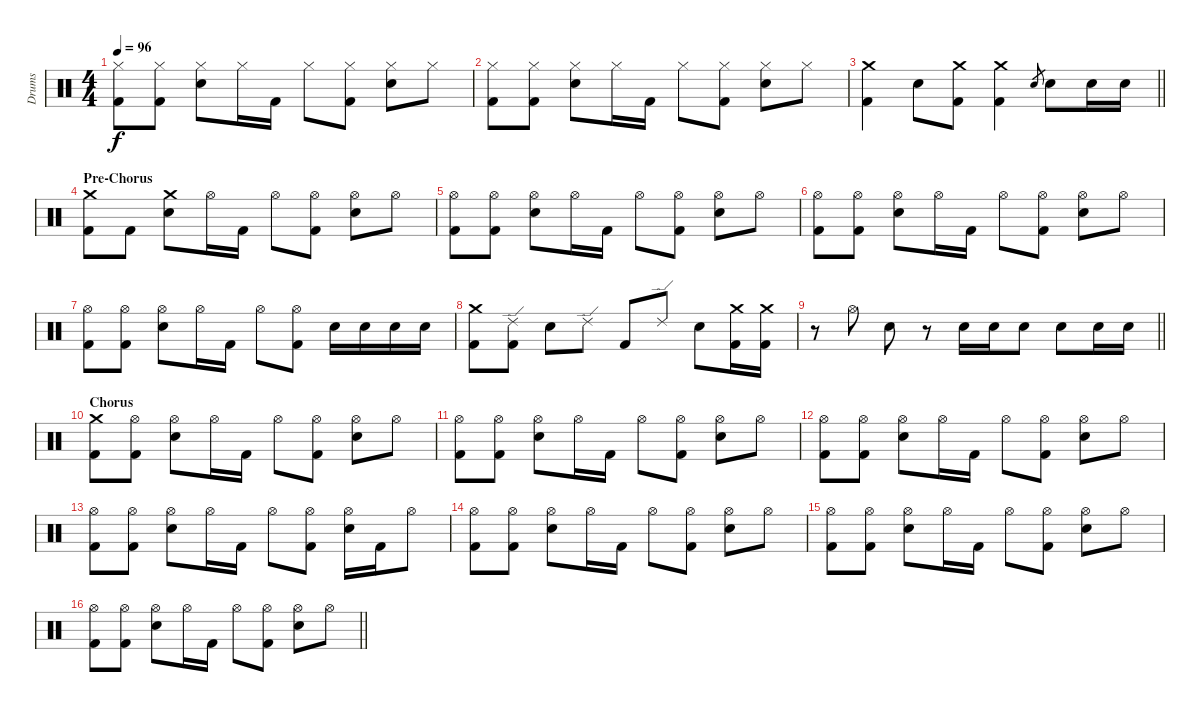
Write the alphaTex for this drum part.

\track ("Drums" "Drums") {instrument percussion}
\staff {score}
\articulation defaults
\ts (4 4)
\tempo 96
\clef neutral
\ks c
("Hi-Hat (closed)" "Kick (hit) 2").8{dy f} ("Hi-Hat (closed)" "Kick (hit) 2").8 ("Hi-Hat (closed)" "Snare (hit) 2").8 "Hi-Hat (closed)".16 "Kick (hit) 2".16 "Hi-Hat (closed)".8 ("Hi-Hat (closed)" "Kick (hit) 2").8 ("Hi-Hat (closed)" "Snare (hit) 2").8 "Hi-Hat (closed)".8 |
("Hi-Hat (closed)" "Kick (hit) 2").8 ("Hi-Hat (closed)" "Kick (hit) 2").8 ("Hi-Hat (closed)" "Snare (hit) 2").8 "Hi-Hat (closed)".16 "Kick (hit) 2".16 "Hi-Hat (closed)".8 ("Hi-Hat (closed)" "Kick (hit) 2").8 ("Hi-Hat (closed)" "Snare (hit) 2").8 "Hi-Hat (closed)".8 |
\barLineRight lightlight
("Crash medium (hit)" "Kick (hit) 2").4 "Snare (hit) 2".8 ("Crash medium (hit)" "Kick (hit) 2").8 ("Crash medium (hit)" "Kick (hit) 2").4 "Snare (hit) 2".8{gr} "Snare (hit) 2".8 "Snare (hit) 2".16 "Snare (hit) 2".16 |
\section ("" "Pre-Chorus")
("Crash medium (hit)" "Kick (hit) 2").8 "Kick (hit) 2".8 ("Crash medium (hit)" "Snare (hit) 2").8 "Hi-Hat (open)".16 "Kick (hit) 2".16 "Hi-Hat (open)".8 ("Hi-Hat (open)" "Kick (hit) 2").8 ("Hi-Hat (open)" "Snare (hit) 2").8 "Hi-Hat (open)".8 |
("Hi-Hat (open)" "Kick (hit) 2").8 ("Hi-Hat (open)" "Kick (hit) 2").8 ("Hi-Hat (open)" "Snare (hit) 2").8 "Hi-Hat (open)".16 "Kick (hit) 2".16 "Hi-Hat (open)".8 ("Hi-Hat (open)" "Kick (hit) 2").8 ("Hi-Hat (open)" "Snare (hit) 2").8 "Hi-Hat (open)".8 |
("Hi-Hat (open)" "Kick (hit) 2").8 ("Hi-Hat (open)" "Kick (hit) 2").8 ("Hi-Hat (open)" "Snare (hit) 2").8 "Hi-Hat (open)".16 "Kick (hit) 2".16 "Hi-Hat (open)".8 ("Hi-Hat (open)" "Kick (hit) 2").8 ("Hi-Hat (open)" "Snare (hit) 2").8 "Hi-Hat (open)".8 |
("Hi-Hat (open)" "Kick (hit) 2").8 ("Hi-Hat (open)" "Kick (hit) 2").8 ("Hi-Hat (open)" "Snare (hit) 2").8 "Hi-Hat (open)".16 "Kick (hit) 2".16 "Hi-Hat (open)".8 ("Hi-Hat (open)" "Kick (hit) 2").8 "Snare (hit) 2".16 "Snare (hit) 2".16 "Snare (hit) 2".16 "Snare (hit) 2".16 |
("Crash medium (hit)" "Kick (hit) 2").8 ("Ride (edge) 2" "Kick (hit) 2").8 "Snare (hit) 2".8 "Ride (edge) 2".8 "Kick (hit) 2".8 "Ride (edge) 2".8 "Snare (hit) 2".8 ("Crash medium (hit)" "Kick (hit) 2").16 ("Crash medium (hit)" "Kick (hit) 2").16 |
\barLineRight lightlight
r.8 "Hi-Hat (open)".8 "Snare (hit) 2".8 r.8 "Snare (hit) 2".16 "Snare (hit) 2".16 "Snare (hit) 2".8 "Snare (hit) 2".8 "Snare (hit) 2".16 "Snare (hit) 2".16 |
\section ("" "Chorus")
("Crash medium (hit)" "Kick (hit) 2").8 ("Hi-Hat (open)" "Kick (hit) 2").8 ("Hi-Hat (open)" "Snare (hit) 2").8 "Hi-Hat (open)".16 "Kick (hit) 2".16 "Hi-Hat (open)".8 ("Hi-Hat (open)" "Kick (hit) 2").8 ("Hi-Hat (open)" "Snare (hit) 2").8 "Hi-Hat (open)".8 |
("Hi-Hat (open)" "Kick (hit) 2").8 ("Hi-Hat (open)" "Kick (hit) 2").8 ("Hi-Hat (open)" "Snare (hit) 2").8 "Hi-Hat (open)".16 "Kick (hit) 2".16 "Hi-Hat (open)".8 ("Hi-Hat (open)" "Kick (hit) 2").8 ("Hi-Hat (open)" "Snare (hit) 2").8 "Hi-Hat (open)".8 |
("Hi-Hat (open)" "Kick (hit) 2").8 ("Hi-Hat (open)" "Kick (hit) 2").8 ("Hi-Hat (open)" "Snare (hit) 2").8 "Hi-Hat (open)".16 "Kick (hit) 2".16 "Hi-Hat (open)".8 ("Hi-Hat (open)" "Kick (hit) 2").8 ("Hi-Hat (open)" "Snare (hit) 2").8 "Hi-Hat (open)".8 |
("Hi-Hat (open)" "Kick (hit) 2").8 ("Hi-Hat (open)" "Kick (hit) 2").8 ("Hi-Hat (open)" "Snare (hit) 2").8 "Hi-Hat (open)".16 "Kick (hit) 2".16 "Hi-Hat (open)".8 ("Hi-Hat (open)" "Kick (hit) 2").8 ("Hi-Hat (open)" "Snare (hit) 2").16 "Kick (hit) 2".16 "Hi-Hat (open)".8 |
("Hi-Hat (open)" "Kick (hit) 2").8 ("Hi-Hat (open)" "Kick (hit) 2").8 ("Hi-Hat (open)" "Snare (hit) 2").8 "Hi-Hat (open)".16 "Kick (hit) 2".16 "Hi-Hat (open)".8 ("Hi-Hat (open)" "Kick (hit) 2").8 ("Hi-Hat (open)" "Snare (hit) 2").8 "Hi-Hat (open)".8 |
("Hi-Hat (open)" "Kick (hit) 2").8 ("Hi-Hat (open)" "Kick (hit) 2").8 ("Hi-Hat (open)" "Snare (hit) 2").8 "Hi-Hat (open)".16 "Kick (hit) 2".16 "Hi-Hat (open)".8 ("Hi-Hat (open)" "Kick (hit) 2").8 ("Hi-Hat (open)" "Snare (hit) 2").8 "Hi-Hat (open)".8 |
\barLineRight lightlight
("Hi-Hat (open)" "Kick (hit) 2").8 ("Hi-Hat (open)" "Kick (hit) 2").8 ("Hi-Hat (open)" "Snare (hit) 2").8 "Hi-Hat (open)".16 "Kick (hit) 2".16 "Hi-Hat (open)".8 ("Hi-Hat (open)" "Kick (hit) 2").8 ("Hi-Hat (open)" "Snare (hit) 2").8 "Hi-Hat (open)".8
